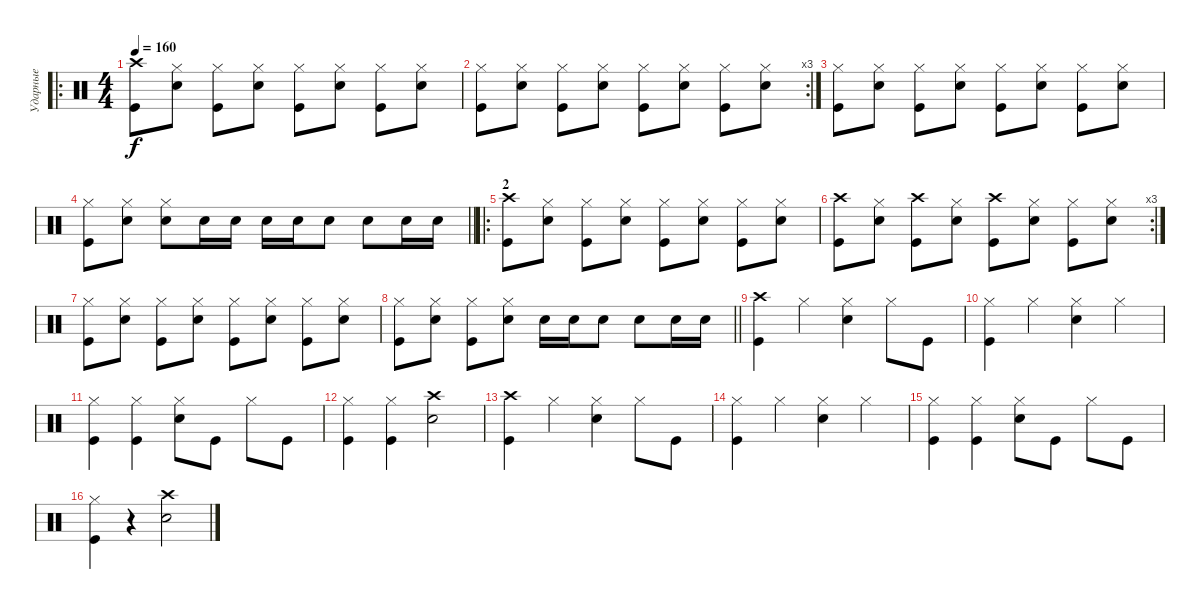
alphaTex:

\track ("Ударные" "Ударные") {instrument percussion}
\staff {score}
\articulation defaults
\ro
\ts (4 4)
\tempo 160
\clef neutral
\ks c
("Crash high (hit)" "Kick (hit)").8{dy f} ("Hi-Hat (closed)" "Snare (hit) 2").8 ("Hi-Hat (closed)" "Kick (hit)").8 ("Hi-Hat (closed)" "Snare (hit) 2").8 ("Hi-Hat (closed)" "Kick (hit)").8 ("Hi-Hat (closed)" "Snare (hit) 2").8 ("Hi-Hat (closed)" "Kick (hit)").8 ("Hi-Hat (closed)" "Snare (hit) 2").8 |
\rc 3
("Hi-Hat (closed)" "Kick (hit)").8 ("Hi-Hat (closed)" "Snare (hit) 2").8 ("Hi-Hat (closed)" "Kick (hit)").8 ("Hi-Hat (closed)" "Snare (hit) 2").8 ("Hi-Hat (closed)" "Kick (hit)").8 ("Hi-Hat (closed)" "Snare (hit) 2").8 ("Hi-Hat (closed)" "Kick (hit)").8 ("Hi-Hat (closed)" "Snare (hit) 2").8 |
("Hi-Hat (closed)" "Kick (hit)").8 ("Hi-Hat (closed)" "Snare (hit) 2").8 ("Hi-Hat (closed)" "Kick (hit)").8 ("Hi-Hat (closed)" "Snare (hit) 2").8 ("Hi-Hat (closed)" "Kick (hit)").8 ("Hi-Hat (closed)" "Snare (hit) 2").8 ("Hi-Hat (closed)" "Kick (hit)").8 ("Hi-Hat (closed)" "Snare (hit) 2").8 |
\barLineRight lightlight
("Hi-Hat (closed)" "Kick (hit)").8 ("Hi-Hat (closed)" "Snare (hit) 2").8 ("Hi-Hat (closed)" "Snare (hit) 2").8 "Snare (hit) 2".16 "Snare (hit) 2".16 "Snare (hit) 2".16 "Snare (hit) 2".16 "Snare (hit) 2".8 "Snare (hit) 2".8 "Snare (hit) 2".16 "Snare (hit) 2".16 |
\ro
\section ("" "2")
("Crash high (hit)" "Kick (hit)").8 ("Hi-Hat (closed)" "Snare (hit) 2").8 ("Hi-Hat (closed)" "Kick (hit)").8 ("Hi-Hat (closed)" "Snare (hit) 2").8 ("Hi-Hat (closed)" "Kick (hit)").8 ("Hi-Hat (closed)" "Snare (hit) 2").8 ("Hi-Hat (closed)" "Kick (hit)").8 ("Hi-Hat (closed)" "Snare (hit) 2").8 |
\rc 3
("Crash high (hit)" "Kick (hit)").8 ("Hi-Hat (closed)" "Snare (hit) 2").8 ("Crash high (hit)" "Kick (hit)").8 ("Hi-Hat (closed)" "Snare (hit) 2").8 ("Crash high (hit)" "Kick (hit)").8 ("Hi-Hat (closed)" "Snare (hit) 2").8 ("Hi-Hat (closed)" "Kick (hit)").8 ("Hi-Hat (closed)" "Snare (hit) 2").8 |
("Hi-Hat (closed)" "Kick (hit)").8 ("Hi-Hat (closed)" "Snare (hit) 2").8 ("Hi-Hat (closed)" "Kick (hit)").8 ("Hi-Hat (closed)" "Snare (hit) 2").8 ("Hi-Hat (closed)" "Kick (hit)").8 ("Hi-Hat (closed)" "Snare (hit) 2").8 ("Hi-Hat (closed)" "Kick (hit)").8 ("Hi-Hat (closed)" "Snare (hit) 2").8 |
\barLineRight lightlight
("Hi-Hat (closed)" "Kick (hit)").8 ("Hi-Hat (closed)" "Snare (hit) 2").8 ("Hi-Hat (closed)" "Kick (hit)").8 ("Hi-Hat (closed)" "Snare (hit) 2").8 "Snare (hit) 2".16 "Snare (hit) 2".16 "Snare (hit) 2".8 "Snare (hit) 2".8 "Snare (hit) 2".16 "Snare (hit) 2".16 |
("Kick (hit)" "Crash high (hit)").4 "Hi-Hat (closed)".4 ("Hi-Hat (closed)" "Snare (hit) 2").4 "Hi-Hat (closed)".8 "Kick (hit)".8 |
("Kick (hit)" "Hi-Hat (closed)").4 "Hi-Hat (closed)".4 ("Hi-Hat (closed)" "Snare (hit) 2").4 "Hi-Hat (closed)".4 |
("Hi-Hat (closed)" "Kick (hit)").4 ("Hi-Hat (closed)" "Kick (hit)").4 ("Hi-Hat (closed)" "Snare (hit) 2").8 "Kick (hit)".8 "Hi-Hat (closed)".8 "Kick (hit)".8 |
("Hi-Hat (closed)" "Kick (hit)").4 ("Hi-Hat (closed)" "Kick (hit)").4 ("Crash high (hit)" "Snare (hit) 2").2 |
("Kick (hit)" "Crash high (hit)").4 "Hi-Hat (closed)".4 ("Hi-Hat (closed)" "Snare (hit) 2").4 "Hi-Hat (closed)".8 "Kick (hit)".8 |
("Kick (hit)" "Hi-Hat (closed)").4 "Hi-Hat (closed)".4 ("Hi-Hat (closed)" "Snare (hit) 2").4 "Hi-Hat (closed)".4 |
("Hi-Hat (closed)" "Kick (hit)").4 ("Hi-Hat (closed)" "Kick (hit)").4 ("Hi-Hat (closed)" "Snare (hit) 2").8 "Kick (hit)".8 "Hi-Hat (closed)".8 "Kick (hit)".8 |
("Hi-Hat (closed)" "Kick (hit)").4 r.4 ("Crash high (hit)" "Snare (hit) 2").2
